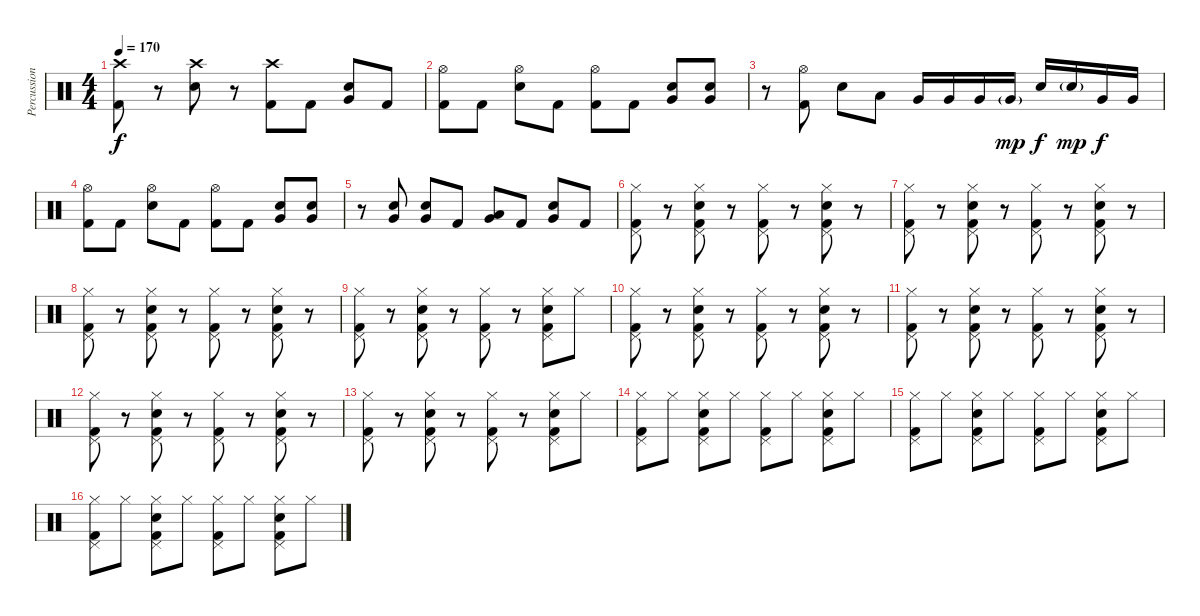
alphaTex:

\track ("Percussion" "Percussion") {instrument percussion}
\staff {score}
\articulation defaults
\ts (4 4)
\tempo 170
\clef neutral
\ks c
("Crash high (hit)" "Kick (hit) 2").8{dy f} r.8 ("Crash high (hit)" "Electric Snare (hit)").8 r.8 ("Crash high (hit)" "Kick (hit) 2").8 "Kick (hit) 2".8 ("Very Low Tom (hit)" "Electric Snare (hit)").8 "Kick (hit) 2".8 |
("Hi-Hat (open)" "Kick (hit) 2").8 "Kick (hit) 2".8 ("Hi-Hat (open)" "Electric Snare (hit)").8 "Kick (hit) 2".8 ("Hi-Hat (open)" "Kick (hit) 2").8 "Kick (hit) 2".8 ("Very Low Tom (hit)" "Electric Snare (hit)").8 ("Very Low Tom (hit)" "Electric Snare (hit)").8 |
r.8 ("Hi-Hat (open)" "Kick (hit) 2").8 "Electric Snare (hit)".8 "Low Tom (hit)".8 "Very Low Tom (hit)".16 "Very Low Tom (hit)".16 "Very Low Tom (hit)".16 "Very Low Tom (hit)"{g}.16{dy mp} "Electric Snare (hit)".16{dy f} "Electric Snare (hit)"{g}.16{dy mp} "Very Low Tom (hit)".16{dy f} "Very Low Tom (hit)".16 |
("Hi-Hat (open)" "Kick (hit) 2").8 "Kick (hit) 2".8 ("Hi-Hat (open)" "Electric Snare (hit)").8 "Kick (hit) 2".8 ("Hi-Hat (open)" "Kick (hit) 2").8 "Kick (hit) 2".8 ("Very Low Tom (hit)" "Electric Snare (hit)").8 ("Very Low Tom (hit)" "Electric Snare (hit)").8 |
r.8 ("Very Low Tom (hit)" "Electric Snare (hit)").8 ("Very Low Tom (hit)" "Electric Snare (hit)").8 "Kick (hit) 2".8 ("Low Floor Tom (hit)" "Very Low Tom (hit)").8 "Kick (hit) 2".8 ("Very Low Tom (hit)" "Electric Snare (hit)").8 "Kick (hit) 2".8 |
("Pedal Hi-Hat (hit)" "Kick (hit) 2" "Hi-Hat (closed)").8 r.8 ("Electric Snare (hit)" "Pedal Hi-Hat (hit)" "Kick (hit) 2" "Hi-Hat (closed)").8 r.8 ("Pedal Hi-Hat (hit)" "Kick (hit) 2" "Hi-Hat (closed)").8 r.8 ("Electric Snare (hit)" "Pedal Hi-Hat (hit)" "Kick (hit) 2" "Hi-Hat (closed)").8 r.8 |
("Pedal Hi-Hat (hit)" "Kick (hit) 2" "Hi-Hat (closed)").8 r.8 ("Electric Snare (hit)" "Pedal Hi-Hat (hit)" "Kick (hit) 2" "Hi-Hat (closed)").8 r.8 ("Pedal Hi-Hat (hit)" "Kick (hit) 2" "Hi-Hat (closed)").8 r.8 ("Electric Snare (hit)" "Pedal Hi-Hat (hit)" "Kick (hit) 2" "Hi-Hat (closed)").8 r.8 |
("Pedal Hi-Hat (hit)" "Kick (hit) 2" "Hi-Hat (closed)").8 r.8 ("Electric Snare (hit)" "Pedal Hi-Hat (hit)" "Kick (hit) 2" "Hi-Hat (closed)").8 r.8 ("Pedal Hi-Hat (hit)" "Kick (hit) 2" "Hi-Hat (closed)").8 r.8 ("Electric Snare (hit)" "Pedal Hi-Hat (hit)" "Kick (hit) 2" "Hi-Hat (closed)").8 r.8 |
("Pedal Hi-Hat (hit)" "Kick (hit) 2" "Hi-Hat (closed)").8 r.8 ("Electric Snare (hit)" "Pedal Hi-Hat (hit)" "Kick (hit) 2" "Hi-Hat (closed)").8 r.8 ("Pedal Hi-Hat (hit)" "Kick (hit) 2" "Hi-Hat (closed)").8 r.8 ("Electric Snare (hit)" "Pedal Hi-Hat (hit)" "Kick (hit) 2" "Hi-Hat (closed)").8 "Hi-Hat (closed)".8 |
("Pedal Hi-Hat (hit)" "Kick (hit) 2" "Hi-Hat (closed)").8 r.8 ("Electric Snare (hit)" "Pedal Hi-Hat (hit)" "Kick (hit) 2" "Hi-Hat (closed)").8 r.8 ("Pedal Hi-Hat (hit)" "Kick (hit) 2" "Hi-Hat (closed)").8 r.8 ("Electric Snare (hit)" "Pedal Hi-Hat (hit)" "Kick (hit) 2" "Hi-Hat (closed)").8 r.8 |
("Pedal Hi-Hat (hit)" "Kick (hit) 2" "Hi-Hat (closed)").8 r.8 ("Electric Snare (hit)" "Pedal Hi-Hat (hit)" "Kick (hit) 2" "Hi-Hat (closed)").8 r.8 ("Pedal Hi-Hat (hit)" "Kick (hit) 2" "Hi-Hat (closed)").8 r.8 ("Electric Snare (hit)" "Pedal Hi-Hat (hit)" "Kick (hit) 2" "Hi-Hat (closed)").8 r.8 |
("Pedal Hi-Hat (hit)" "Kick (hit) 2" "Hi-Hat (closed)").8 r.8 ("Electric Snare (hit)" "Pedal Hi-Hat (hit)" "Kick (hit) 2" "Hi-Hat (closed)").8 r.8 ("Pedal Hi-Hat (hit)" "Kick (hit) 2" "Hi-Hat (closed)").8 r.8 ("Electric Snare (hit)" "Pedal Hi-Hat (hit)" "Kick (hit) 2" "Hi-Hat (closed)").8 r.8 |
("Pedal Hi-Hat (hit)" "Kick (hit) 2" "Hi-Hat (closed)").8 r.8 ("Electric Snare (hit)" "Pedal Hi-Hat (hit)" "Kick (hit) 2" "Hi-Hat (closed)").8 r.8 ("Pedal Hi-Hat (hit)" "Kick (hit) 2" "Hi-Hat (closed)").8 r.8 ("Electric Snare (hit)" "Pedal Hi-Hat (hit)" "Kick (hit) 2" "Hi-Hat (closed)").8 "Hi-Hat (closed)".8 |
("Pedal Hi-Hat (hit)" "Kick (hit) 2" "Hi-Hat (closed)").8 "Hi-Hat (closed)".8 ("Electric Snare (hit)" "Pedal Hi-Hat (hit)" "Kick (hit) 2" "Hi-Hat (closed)").8 "Hi-Hat (closed)".8 ("Pedal Hi-Hat (hit)" "Kick (hit) 2" "Hi-Hat (closed)").8 "Hi-Hat (closed)".8 ("Electric Snare (hit)" "Pedal Hi-Hat (hit)" "Kick (hit) 2" "Hi-Hat (closed)").8 "Hi-Hat (closed)".8 |
("Pedal Hi-Hat (hit)" "Kick (hit) 2" "Hi-Hat (closed)").8 "Hi-Hat (closed)".8 ("Electric Snare (hit)" "Pedal Hi-Hat (hit)" "Kick (hit) 2" "Hi-Hat (closed)").8 "Hi-Hat (closed)".8 ("Pedal Hi-Hat (hit)" "Kick (hit) 2" "Hi-Hat (closed)").8 "Hi-Hat (closed)".8 ("Electric Snare (hit)" "Pedal Hi-Hat (hit)" "Kick (hit) 2" "Hi-Hat (closed)").8 "Hi-Hat (closed)".8 |
("Pedal Hi-Hat (hit)" "Kick (hit) 2" "Hi-Hat (closed)").8 "Hi-Hat (closed)".8 ("Electric Snare (hit)" "Pedal Hi-Hat (hit)" "Kick (hit) 2" "Hi-Hat (closed)").8 "Hi-Hat (closed)".8 ("Pedal Hi-Hat (hit)" "Kick (hit) 2" "Hi-Hat (closed)").8 "Hi-Hat (closed)".8 ("Electric Snare (hit)" "Pedal Hi-Hat (hit)" "Kick (hit) 2" "Hi-Hat (closed)").8 "Hi-Hat (closed)".8
